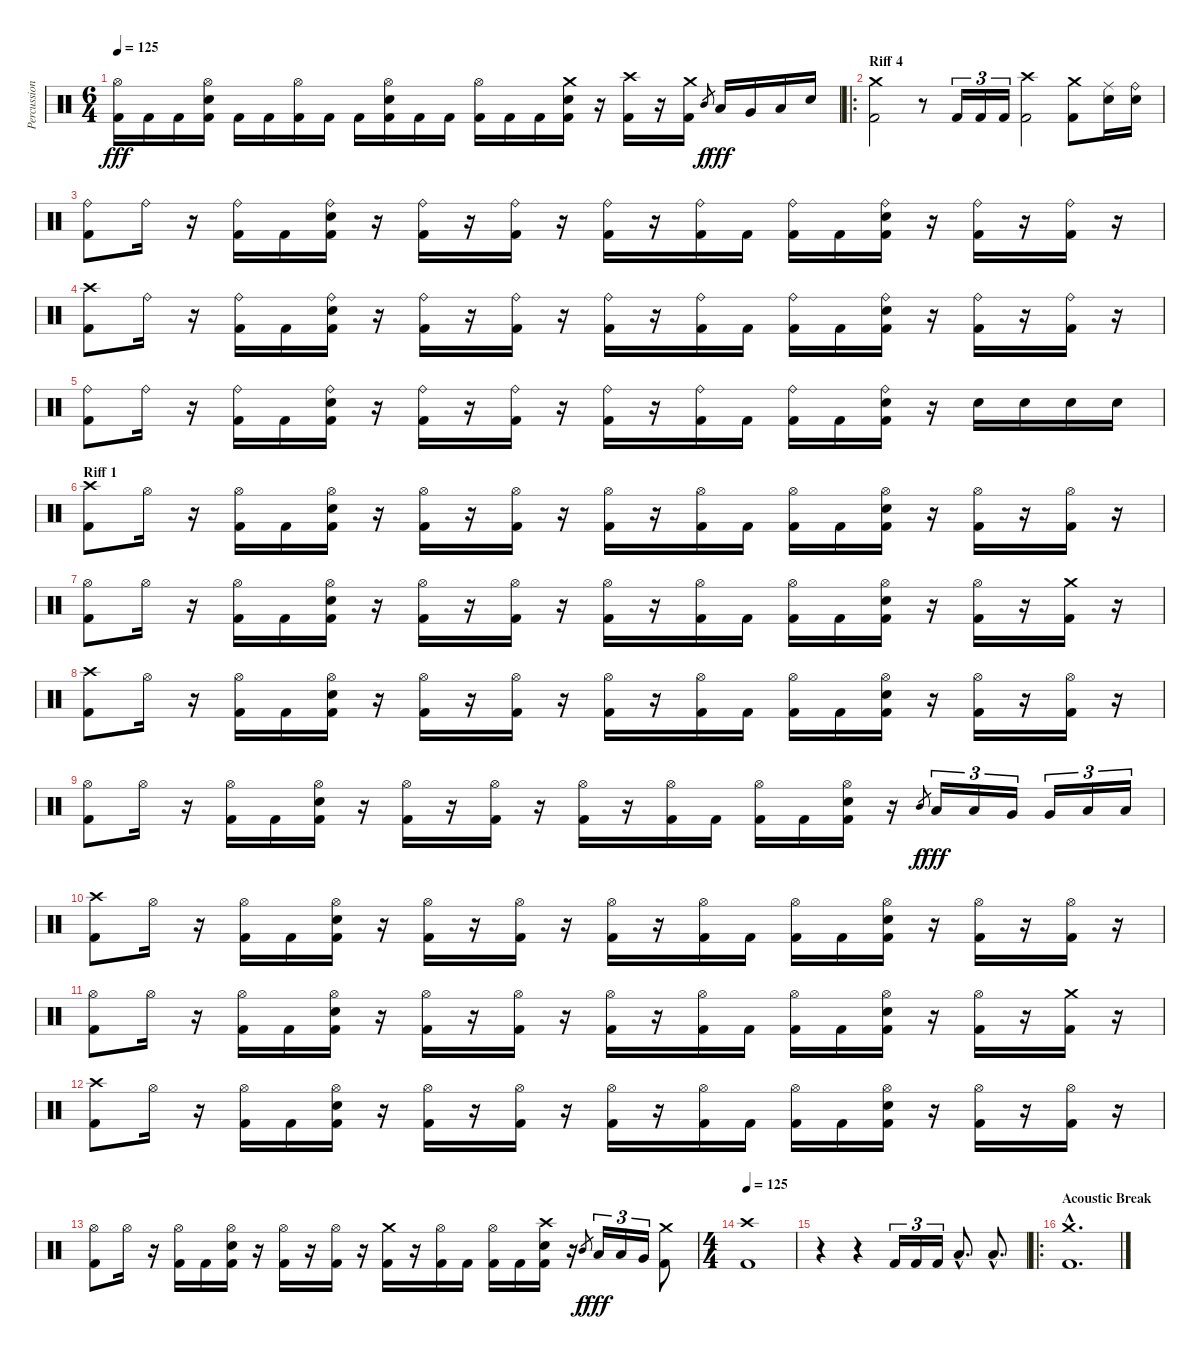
\track ("Percussion" "Percussion") {instrument percussion}
\staff {score}
\articulation defaults
\ts (6 4)
\tempo 125
\clef neutral
\ks c
("Hi-Hat (open)" "Kick (hit) 2").16{dy fff} "Kick (hit) 2".16 "Kick (hit) 2".16 ("Hi-Hat (open)" "Electric Snare (hit)" "Kick (hit) 2").16 "Kick (hit) 2".16 "Kick (hit) 2".16 ("Hi-Hat (open)" "Kick (hit) 2").16 "Kick (hit) 2".16 "Kick (hit) 2".16 ("Hi-Hat (open)" "Electric Snare (hit)" "Kick (hit) 2").16 "Kick (hit) 2".16 "Kick (hit) 2".16 ("Hi-Hat (open)" "Kick (hit) 2").16 "Kick (hit) 2".16 "Kick (hit) 2".16 ("Crash medium (hit)" "Electric Snare (hit)" "Kick (hit) 2").16 r.16 ("Crash high (hit)" "Kick (hit) 2").16 r.16 ("Crash medium (hit)" "Kick (hit) 2").16 "Mid Tom (hit)".8{gr dy f} "Low Tom (hit)".16{dy fff} "Very Low Tom (hit)".16 "Low Floor Tom (hit)".16 "Electric Snare (hit)".16 |
\ro
\section ("" "Riff 4")
("Crash medium (hit)" "Kick (hit) 2").2 r.8 "Kick (hit) 2".16{tu (3 2)} "Kick (hit) 2".16{tu (3 2)} "Kick (hit) 2".16{tu (3 2)} ("Crash high (hit)" "Kick (hit) 2").2 ("Crash medium (hit)" "Kick (hit) 2").8 ("Ride (middle)" "Electric Snare (hit)").16 ("Ride (bell)" "Electric Snare (hit)").16 |
("Ride (bell)" "Kick (hit) 2").8 "Ride (bell)".16 r.16 ("Ride (bell)" "Kick (hit) 2").16 "Kick (hit) 2".16 ("Ride (bell)" "Electric Snare (hit)" "Kick (hit) 2").16 r.16 ("Ride (bell)" "Kick (hit) 2").16 r.16 ("Ride (bell)" "Kick (hit) 2").16 r.16 ("Ride (bell)" "Kick (hit) 2").16 r.16 ("Ride (bell)" "Kick (hit) 2").16 "Kick (hit) 2".16 ("Ride (bell)" "Kick (hit) 2").16 "Kick (hit) 2".16 ("Ride (bell)" "Electric Snare (hit)" "Kick (hit) 2").16 r.16 ("Ride (bell)" "Kick (hit) 2").16 r.16 ("Ride (bell)" "Kick (hit) 2").16 r.16 |
("Crash high (hit)" "Kick (hit) 2").8 "Ride (bell)".16 r.16 ("Ride (bell)" "Kick (hit) 2").16 "Kick (hit) 2".16 ("Ride (bell)" "Electric Snare (hit)" "Kick (hit) 2").16 r.16 ("Ride (bell)" "Kick (hit) 2").16 r.16 ("Ride (bell)" "Kick (hit) 2").16 r.16 ("Ride (bell)" "Kick (hit) 2").16 r.16 ("Ride (bell)" "Kick (hit) 2").16 "Kick (hit) 2".16 ("Ride (bell)" "Kick (hit) 2").16 "Kick (hit) 2".16 ("Ride (bell)" "Electric Snare (hit)" "Kick (hit) 2").16 r.16 ("Ride (bell)" "Kick (hit) 2").16 r.16 ("Ride (bell)" "Kick (hit) 2").16 r.16 |
("Ride (bell)" "Kick (hit) 2").8 "Ride (bell)".16 r.16 ("Ride (bell)" "Kick (hit) 2").16 "Kick (hit) 2".16 ("Ride (bell)" "Electric Snare (hit)" "Kick (hit) 2").16 r.16 ("Ride (bell)" "Kick (hit) 2").16 r.16 ("Ride (bell)" "Kick (hit) 2").16 r.16 ("Ride (bell)" "Kick (hit) 2").16 r.16 ("Ride (bell)" "Kick (hit) 2").16 "Kick (hit) 2".16 ("Ride (bell)" "Kick (hit) 2").16 "Kick (hit) 2".16 ("Ride (bell)" "Electric Snare (hit)" "Kick (hit) 2").16 r.16 "Electric Snare (hit)".16 "Electric Snare (hit)".16 "Electric Snare (hit)".16 "Electric Snare (hit)".16 |
\section ("" "Riff 1")
("Crash high (hit)" "Kick (hit) 2").8 "Hi-Hat (open)".16 r.16 ("Hi-Hat (open)" "Kick (hit) 2").16 "Kick (hit) 2".16 ("Hi-Hat (open)" "Electric Snare (hit)" "Kick (hit) 2").16 r.16 ("Hi-Hat (open)" "Kick (hit) 2").16 r.16 ("Hi-Hat (open)" "Kick (hit) 2").16 r.16 ("Hi-Hat (open)" "Kick (hit) 2").16 r.16 ("Hi-Hat (open)" "Kick (hit) 2").16 "Kick (hit) 2".16 ("Hi-Hat (open)" "Kick (hit) 2").16 "Kick (hit) 2".16 ("Hi-Hat (open)" "Electric Snare (hit)" "Kick (hit) 2").16 r.16 ("Hi-Hat (open)" "Kick (hit) 2").16 r.16 ("Hi-Hat (open)" "Kick (hit) 2").16 r.16 |
("Hi-Hat (open)" "Kick (hit) 2").8 "Hi-Hat (open)".16 r.16 ("Hi-Hat (open)" "Kick (hit) 2").16 "Kick (hit) 2".16 ("Hi-Hat (open)" "Electric Snare (hit)" "Kick (hit) 2").16 r.16 ("Hi-Hat (open)" "Kick (hit) 2").16 r.16 ("Hi-Hat (open)" "Kick (hit) 2").16 r.16 ("Hi-Hat (open)" "Kick (hit) 2").16 r.16 ("Hi-Hat (open)" "Kick (hit) 2").16 "Kick (hit) 2".16 ("Hi-Hat (open)" "Kick (hit) 2").16 "Kick (hit) 2".16 ("Hi-Hat (open)" "Electric Snare (hit)" "Kick (hit) 2").16 r.16 ("Hi-Hat (open)" "Kick (hit) 2").16 r.16 ("Crash medium (hit)" "Kick (hit) 2").16 r.16 |
("Crash high (hit)" "Kick (hit) 2").8 "Hi-Hat (open)".16 r.16 ("Hi-Hat (open)" "Kick (hit) 2").16 "Kick (hit) 2".16 ("Hi-Hat (open)" "Electric Snare (hit)" "Kick (hit) 2").16 r.16 ("Hi-Hat (open)" "Kick (hit) 2").16 r.16 ("Hi-Hat (open)" "Kick (hit) 2").16 r.16 ("Hi-Hat (open)" "Kick (hit) 2").16 r.16 ("Hi-Hat (open)" "Kick (hit) 2").16 "Kick (hit) 2".16 ("Hi-Hat (open)" "Kick (hit) 2").16 "Kick (hit) 2".16 ("Hi-Hat (open)" "Electric Snare (hit)" "Kick (hit) 2").16 r.16 ("Hi-Hat (open)" "Kick (hit) 2").16 r.16 ("Hi-Hat (open)" "Kick (hit) 2").16 r.16 |
("Hi-Hat (open)" "Kick (hit) 2").8 "Hi-Hat (open)".16 r.16 ("Hi-Hat (open)" "Kick (hit) 2").16 "Kick (hit) 2".16 ("Hi-Hat (open)" "Electric Snare (hit)" "Kick (hit) 2").16 r.16 ("Hi-Hat (open)" "Kick (hit) 2").16 r.16 ("Hi-Hat (open)" "Kick (hit) 2").16 r.16 ("Hi-Hat (open)" "Kick (hit) 2").16 r.16 ("Hi-Hat (open)" "Kick (hit) 2").16 "Kick (hit) 2".16 ("Hi-Hat (open)" "Kick (hit) 2").16 "Kick (hit) 2".16 ("Hi-Hat (open)" "Electric Snare (hit)" "Kick (hit) 2").16 r.16 "Mid Tom (hit)".8{gr dy f} "Low Tom (hit)".16{tu (3 2) dy fff} "Low Tom (hit)".16{tu (3 2)} "Very Low Tom (hit)".16{tu (3 2)} "Very Low Tom (hit)".16{tu (3 2)} "Low Floor Tom (hit)".16{tu (3 2)} "Low Floor Tom (hit)".16{tu (3 2)} |
("Crash high (hit)" "Kick (hit) 2").8 "Hi-Hat (open)".16 r.16 ("Hi-Hat (open)" "Kick (hit) 2").16 "Kick (hit) 2".16 ("Hi-Hat (open)" "Electric Snare (hit)" "Kick (hit) 2").16 r.16 ("Hi-Hat (open)" "Kick (hit) 2").16 r.16 ("Hi-Hat (open)" "Kick (hit) 2").16 r.16 ("Hi-Hat (open)" "Kick (hit) 2").16 r.16 ("Hi-Hat (open)" "Kick (hit) 2").16 "Kick (hit) 2".16 ("Hi-Hat (open)" "Kick (hit) 2").16 "Kick (hit) 2".16 ("Hi-Hat (open)" "Electric Snare (hit)" "Kick (hit) 2").16 r.16 ("Hi-Hat (open)" "Kick (hit) 2").16 r.16 ("Hi-Hat (open)" "Kick (hit) 2").16 r.16 |
("Hi-Hat (open)" "Kick (hit) 2").8 "Hi-Hat (open)".16 r.16 ("Hi-Hat (open)" "Kick (hit) 2").16 "Kick (hit) 2".16 ("Hi-Hat (open)" "Electric Snare (hit)" "Kick (hit) 2").16 r.16 ("Hi-Hat (open)" "Kick (hit) 2").16 r.16 ("Hi-Hat (open)" "Kick (hit) 2").16 r.16 ("Hi-Hat (open)" "Kick (hit) 2").16 r.16 ("Hi-Hat (open)" "Kick (hit) 2").16 "Kick (hit) 2".16 ("Hi-Hat (open)" "Kick (hit) 2").16 "Kick (hit) 2".16 ("Hi-Hat (open)" "Electric Snare (hit)" "Kick (hit) 2").16 r.16 ("Hi-Hat (open)" "Kick (hit) 2").16 r.16 ("Crash medium (hit)" "Kick (hit) 2").16 r.16 |
("Crash high (hit)" "Kick (hit) 2").8 "Hi-Hat (open)".16 r.16 ("Hi-Hat (open)" "Kick (hit) 2").16 "Kick (hit) 2".16 ("Hi-Hat (open)" "Electric Snare (hit)" "Kick (hit) 2").16 r.16 ("Hi-Hat (open)" "Kick (hit) 2").16 r.16 ("Hi-Hat (open)" "Kick (hit) 2").16 r.16 ("Hi-Hat (open)" "Kick (hit) 2").16 r.16 ("Hi-Hat (open)" "Kick (hit) 2").16 "Kick (hit) 2".16 ("Hi-Hat (open)" "Kick (hit) 2").16 "Kick (hit) 2".16 ("Hi-Hat (open)" "Electric Snare (hit)" "Kick (hit) 2").16 r.16 ("Hi-Hat (open)" "Kick (hit) 2").16 r.16 ("Hi-Hat (open)" "Kick (hit) 2").16 r.16 |
("Hi-Hat (open)" "Kick (hit) 2").8 "Hi-Hat (open)".16 r.16 ("Hi-Hat (open)" "Kick (hit) 2").16 "Kick (hit) 2".16 ("Hi-Hat (open)" "Electric Snare (hit)" "Kick (hit) 2").16 r.16 ("Hi-Hat (open)" "Kick (hit) 2").16 r.16 ("Hi-Hat (open)" "Kick (hit) 2").16 r.16 ("Crash medium (hit)" "Kick (hit) 2").16 r.16 ("Hi-Hat (open)" "Kick (hit) 2").16 "Kick (hit) 2".16 ("Hi-Hat (open)" "Kick (hit) 2").16 "Kick (hit) 2".16 ("Crash high (hit)" "Electric Snare (hit)" "Kick (hit) 2").16 r.16 "Mid Tom (hit)".8{gr dy f} "Low Tom (hit)".16{tu (3 2) dy fff} "Low Tom (hit)".16{tu (3 2)} "Very Low Tom (hit)".16{tu (3 2)} ("Crash medium (hit)" "Kick (hit) 2").8 |
\ts (4 4)
\tempo 125
("Crash high (hit)" "Kick (hit) 2").1 |
r.4 r.4 "Kick (hit) 2".16{tu (3 2)} "Kick (hit) 2".16{tu (3 2)} "Kick (hit) 2".16{tu (3 2)} "Low Floor Tom (hit)"{hac}.8{d} "Low Floor Tom (hit)"{hac}.8{d} |
\ro
\section ("" "Acoustic Break")
("Crash medium (hit)"{hac} "Kick (hit) 2"{hac}).1{d}
